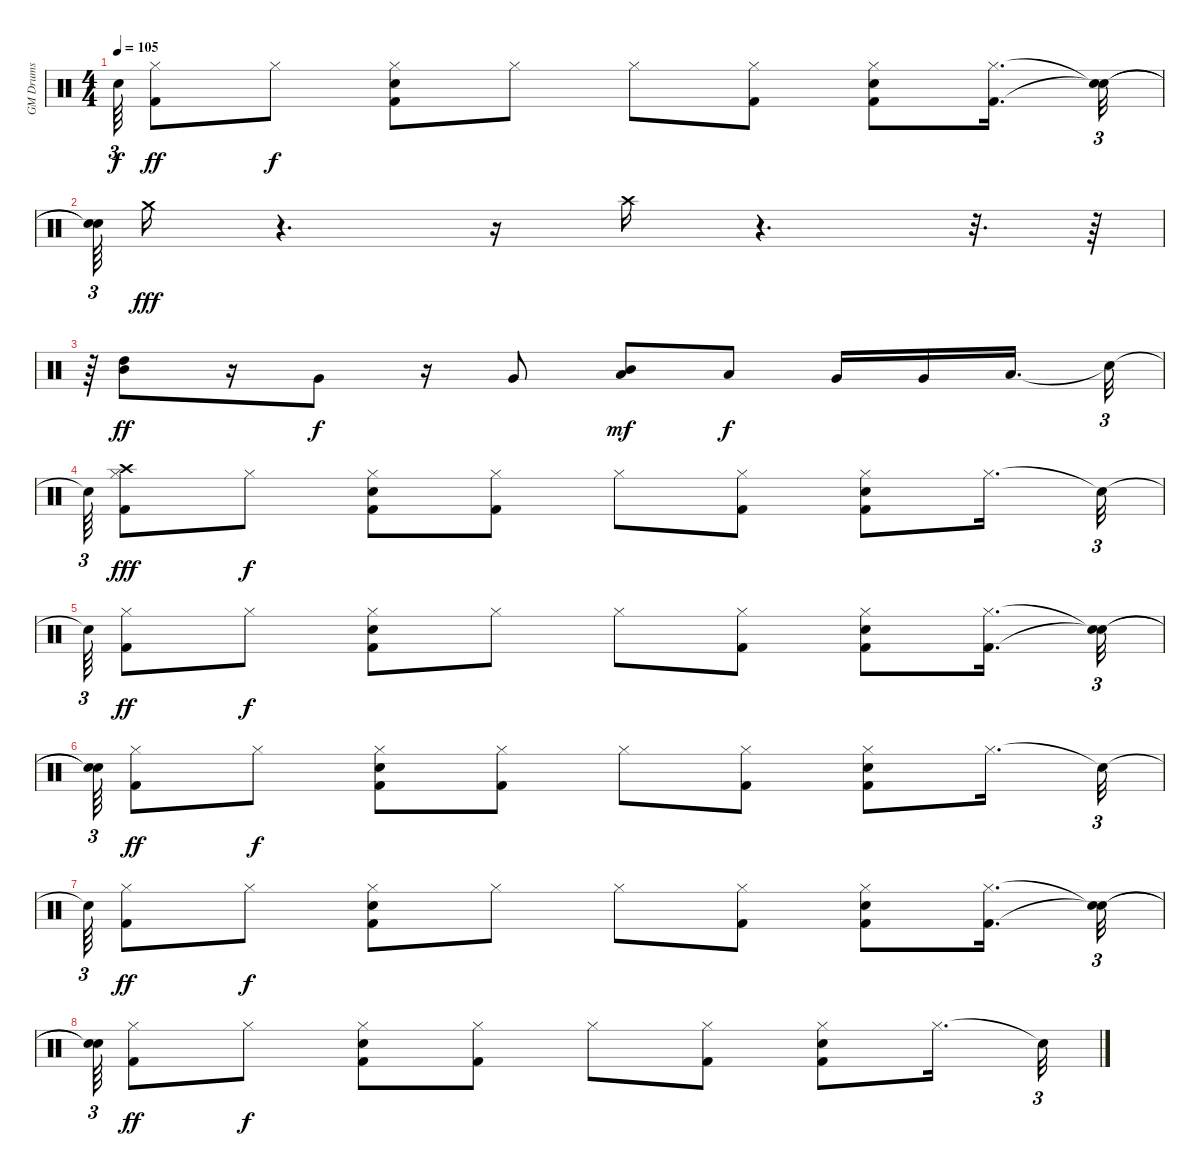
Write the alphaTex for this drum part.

\track ("GM Drums" "GM Drums") {instrument percussion}
\staff {score}
\articulation defaults
\ts (4 4)
\tempo 105
\clef neutral
\ks c "Snare (hit)"{t}.64{tu (3 2) dy f}
("Kick (hit) 2" "Hi-Hat (closed)").8{dy ff} "Hi-Hat (closed)".8{dy f} ("Kick (hit) 2" "Electric Snare (hit)" "Hi-Hat (closed)").8 "Hi-Hat (closed)".8 "Hi-Hat (closed)".8 ("Kick (hit) 2" "Hi-Hat (closed)").8 ("Kick (hit) 2" "Electric Snare (hit)" "Hi-Hat (closed)").8 ("Kick (hit) 2" "Hi-Hat (closed)").16{d} ("Snare (hit)"{t} "Snare (hit)"{t}).32{tu (3 2)} |
("Snare (hit)"{t} "Snare (hit)"{t}).64{tu (3 2)} "Crash medium (hit)".16{dy fff} r.4{d} r.16 "Crash high (hit)".16 r.4{d} r.32{d} r.64 |
r.64{tu (3 2)} ("Mid Tom (hit)" "High Tom (hit)").8{dy ff} r.16 "Very Low Tom (hit)".8{dy f} r.16 "Very Low Tom (hit)".8 ("Low Tom (hit)" "Mid Tom (hit)").8{dy mf} "Low Tom (hit)".8{dy f} "Very Low Tom (hit)".16 "Very Low Tom (hit)".16 "Low Floor Tom (hit)".16{d beam splitsecondary} "Snare (hit)"{t}.32{tu (3 2)} |
"Snare (hit)"{t}.64{tu (3 2)} ("Kick (hit) 2" "Hi-Hat (closed)" "Crash high (hit)").8{dy fff} "Hi-Hat (closed)".8{dy f} ("Kick (hit) 2" "Electric Snare (hit)" "Hi-Hat (closed)").8 ("Kick (hit) 2" "Hi-Hat (closed)").8 "Hi-Hat (closed)".8 ("Kick (hit) 2" "Hi-Hat (closed)").8 ("Kick (hit) 2" "Electric Snare (hit)" "Hi-Hat (closed)").8 "Hi-Hat (closed)".16{d} "Snare (hit)"{t}.32{tu (3 2)} |
"Snare (hit)"{t}.64{tu (3 2)} ("Kick (hit) 2" "Hi-Hat (closed)").8{dy ff} "Hi-Hat (closed)".8{dy f} ("Kick (hit) 2" "Electric Snare (hit)" "Hi-Hat (closed)").8 "Hi-Hat (closed)".8 "Hi-Hat (closed)".8 ("Kick (hit) 2" "Hi-Hat (closed)").8 ("Kick (hit) 2" "Electric Snare (hit)" "Hi-Hat (closed)").8 ("Kick (hit) 2" "Hi-Hat (closed)").16{d} ("Snare (hit)"{t} "Snare (hit)"{t}).32{tu (3 2)} |
("Snare (hit)"{t} "Snare (hit)"{t}).64{tu (3 2)} ("Kick (hit) 2" "Hi-Hat (closed)").8{dy ff} "Hi-Hat (closed)".8{dy f} ("Kick (hit) 2" "Electric Snare (hit)" "Hi-Hat (closed)").8 ("Kick (hit) 2" "Hi-Hat (closed)").8 "Hi-Hat (closed)".8 ("Kick (hit) 2" "Hi-Hat (closed)").8 ("Kick (hit) 2" "Electric Snare (hit)" "Hi-Hat (closed)").8 "Hi-Hat (closed)".16{d} "Snare (hit)"{t}.32{tu (3 2)} |
"Snare (hit)"{t}.64{tu (3 2)} ("Kick (hit) 2" "Hi-Hat (closed)").8{dy ff} "Hi-Hat (closed)".8{dy f} ("Kick (hit) 2" "Electric Snare (hit)" "Hi-Hat (closed)").8 "Hi-Hat (closed)".8 "Hi-Hat (closed)".8 ("Kick (hit) 2" "Hi-Hat (closed)").8 ("Kick (hit) 2" "Electric Snare (hit)" "Hi-Hat (closed)").8 ("Kick (hit) 2" "Hi-Hat (closed)").16{d} ("Snare (hit)"{t} "Snare (hit)"{t}).32{tu (3 2)} |
("Snare (hit)"{t} "Snare (hit)"{t}).64{tu (3 2)} ("Kick (hit) 2" "Hi-Hat (closed)").8{dy ff} "Hi-Hat (closed)".8{dy f} ("Kick (hit) 2" "Electric Snare (hit)" "Hi-Hat (closed)").8 ("Kick (hit) 2" "Hi-Hat (closed)").8 "Hi-Hat (closed)".8 ("Kick (hit) 2" "Hi-Hat (closed)").8 ("Kick (hit) 2" "Electric Snare (hit)" "Hi-Hat (closed)").8 "Hi-Hat (closed)".16{d} "Snare (hit)"{t}.32{tu (3 2)}
